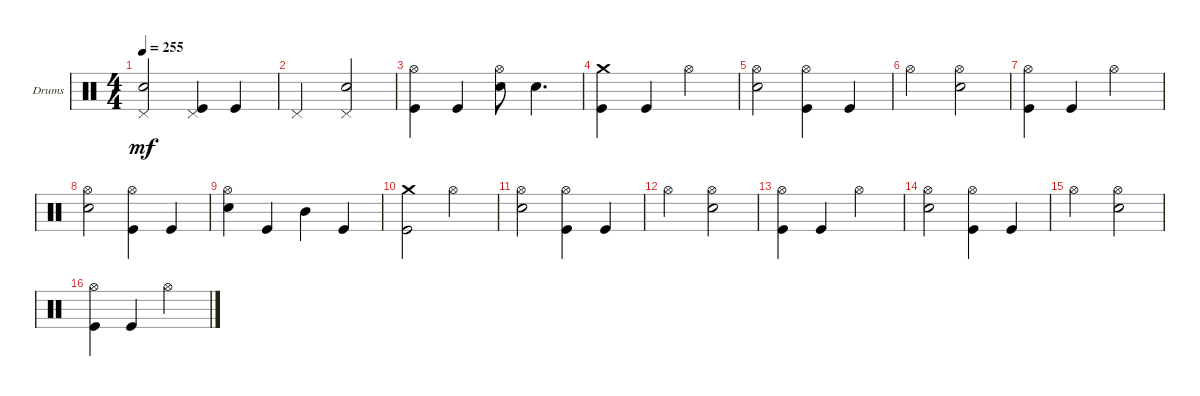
\bracketExtendMode groupsimilarinstruments
\firstSystemTrackNameOrientation horizontal
\otherSystemsTrackNameOrientation horizontal
\track ("Drums" "Drums") {instrument percussion}
\staff {score}
\articulation defaults
\ts (4 4)
\tempo 255
\clef neutral
\ks c
("Snare (hit) 2" "Pedal Hi-Hat (hit)").2{dy mf} ("Kick (hit)" "Pedal Hi-Hat (hit)").4 "Kick (hit)".4 |
"Pedal Hi-Hat (hit)".2 ("Snare (hit) 2" "Pedal Hi-Hat (hit)").2 |
("Kick (hit)" "Hi-Hat (open)").4 "Kick (hit)".4 ("Snare (hit) 2" "Hi-Hat (open)").8 "Snare (hit) 2".4{d} |
("Kick (hit)" "Crash medium (hit)").4 "Kick (hit)".4 "Hi-Hat (open)".2 |
("Snare (hit) 2" "Hi-Hat (open)").2 ("Kick (hit)" "Hi-Hat (open)").4 "Kick (hit)".4 |
"Hi-Hat (open)".2 ("Snare (hit) 2" "Hi-Hat (open)").2 |
("Kick (hit)" "Hi-Hat (open)").4 "Kick (hit)".4 "Hi-Hat (open)".2 |
("Snare (hit) 2" "Hi-Hat (open)").2 ("Kick (hit)" "Hi-Hat (open)").4 "Kick (hit)".4 |
("Snare (hit) 2" "Hi-Hat (open)").4 "Kick (hit)".4 "Mid Tom (hit)".4 "Kick (hit)".4 |
("Kick (hit)" "Crash medium (hit)").2 "Hi-Hat (open)".2 |
("Snare (hit) 2" "Hi-Hat (open)").2 ("Kick (hit)" "Hi-Hat (open)").4 "Kick (hit)".4 |
"Hi-Hat (open)".2 ("Snare (hit) 2" "Hi-Hat (open)").2 |
("Kick (hit)" "Hi-Hat (open)").4 "Kick (hit)".4 "Hi-Hat (open)".2 |
("Snare (hit) 2" "Hi-Hat (open)").2 ("Kick (hit)" "Hi-Hat (open)").4 "Kick (hit)".4 |
"Hi-Hat (open)".2 ("Snare (hit) 2" "Hi-Hat (open)").2 |
("Kick (hit)" "Hi-Hat (open)").4 "Kick (hit)".4 "Hi-Hat (open)".2
